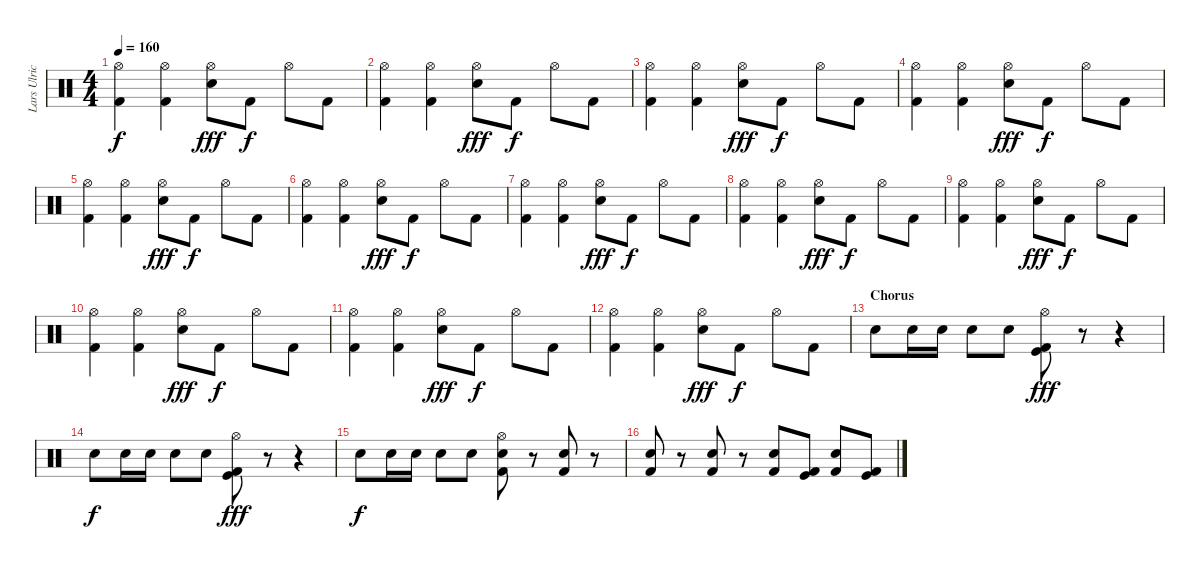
\track ("Lars Ulrich" "Lars Ulric") {instrument percussion}
\staff {score}
\articulation defaults
\ts (4 4)
\tempo 160
\clef neutral
\ks c
("Hi-Hat (open)" "Kick (hit) 2").4{dy f} ("Hi-Hat (open)" "Kick (hit) 2").4 ("Hi-Hat (open)" "Electric Snare (hit)").8{dy fff} "Kick (hit) 2".8{dy f} "Hi-Hat (open)".8 "Kick (hit) 2".8 |
("Hi-Hat (open)" "Kick (hit) 2").4 ("Hi-Hat (open)" "Kick (hit) 2").4 ("Hi-Hat (open)" "Electric Snare (hit)").8{dy fff} "Kick (hit) 2".8{dy f} "Hi-Hat (open)".8 "Kick (hit) 2".8 |
("Hi-Hat (open)" "Kick (hit) 2").4 ("Hi-Hat (open)" "Kick (hit) 2").4 ("Hi-Hat (open)" "Electric Snare (hit)").8{dy fff} "Kick (hit) 2".8{dy f} "Hi-Hat (open)".8 "Kick (hit) 2".8 |
("Hi-Hat (open)" "Kick (hit) 2").4 ("Hi-Hat (open)" "Kick (hit) 2").4 ("Hi-Hat (open)" "Electric Snare (hit)").8{dy fff} "Kick (hit) 2".8{dy f} "Hi-Hat (open)".8 "Kick (hit) 2".8 |
("Hi-Hat (open)" "Kick (hit) 2").4 ("Hi-Hat (open)" "Kick (hit) 2").4 ("Hi-Hat (open)" "Electric Snare (hit)").8{dy fff} "Kick (hit) 2".8{dy f} "Hi-Hat (open)".8 "Kick (hit) 2".8 |
("Hi-Hat (open)" "Kick (hit) 2").4 ("Hi-Hat (open)" "Kick (hit) 2").4 ("Hi-Hat (open)" "Electric Snare (hit)").8{dy fff} "Kick (hit) 2".8{dy f} "Hi-Hat (open)".8 "Kick (hit) 2".8 |
("Hi-Hat (open)" "Kick (hit) 2").4 ("Hi-Hat (open)" "Kick (hit) 2").4 ("Hi-Hat (open)" "Electric Snare (hit)").8{dy fff} "Kick (hit) 2".8{dy f} "Hi-Hat (open)".8 "Kick (hit) 2".8 |
("Hi-Hat (open)" "Kick (hit) 2").4 ("Hi-Hat (open)" "Kick (hit) 2").4 ("Hi-Hat (open)" "Electric Snare (hit)").8{dy fff} "Kick (hit) 2".8{dy f} "Hi-Hat (open)".8 "Kick (hit) 2".8 |
("Hi-Hat (open)" "Kick (hit) 2").4 ("Hi-Hat (open)" "Kick (hit) 2").4 ("Hi-Hat (open)" "Electric Snare (hit)").8{dy fff} "Kick (hit) 2".8{dy f} "Hi-Hat (open)".8 "Kick (hit) 2".8 |
("Hi-Hat (open)" "Kick (hit) 2").4 ("Hi-Hat (open)" "Kick (hit) 2").4 ("Hi-Hat (open)" "Electric Snare (hit)").8{dy fff} "Kick (hit) 2".8{dy f} "Hi-Hat (open)".8 "Kick (hit) 2".8 |
("Hi-Hat (open)" "Kick (hit) 2").4 ("Hi-Hat (open)" "Kick (hit) 2").4 ("Hi-Hat (open)" "Electric Snare (hit)").8{dy fff} "Kick (hit) 2".8{dy f} "Hi-Hat (open)".8 "Kick (hit) 2".8 |
("Hi-Hat (open)" "Kick (hit) 2").4 ("Hi-Hat (open)" "Kick (hit) 2").4 ("Hi-Hat (open)" "Electric Snare (hit)").8{dy fff} "Kick (hit) 2".8{dy f} "Hi-Hat (open)".8 "Kick (hit) 2".8 |
\section ("" "Chorus")
"Electric Snare (hit)".8 "Electric Snare (hit)".16 "Electric Snare (hit)".16 "Electric Snare (hit)".8 "Electric Snare (hit)".8 ("Hi-Hat (open)" "Kick (hit)" "Kick (hit) 2").8{dy fff} r.8 r.4 |
"Electric Snare (hit)".8{dy f} "Electric Snare (hit)".16 "Electric Snare (hit)".16 "Electric Snare (hit)".8 "Electric Snare (hit)".8 ("Hi-Hat (open)" "Kick (hit)" "Kick (hit) 2").8{dy fff} r.8 r.4 |
"Electric Snare (hit)".8{dy f} "Electric Snare (hit)".16 "Electric Snare (hit)".16 "Electric Snare (hit)".8 "Electric Snare (hit)".8 ("Hi-Hat (open)" "Electric Snare (hit)" "Kick (hit) 2").8 r.8 ("Electric Snare (hit)" "Kick (hit) 2").8 r.8 |
("Electric Snare (hit)" "Kick (hit) 2").8 r.8 ("Electric Snare (hit)" "Kick (hit) 2").8 r.8 ("Electric Snare (hit)" "Kick (hit) 2").8 ("Kick (hit) 2" "Kick (hit)").8 ("Electric Snare (hit)" "Kick (hit) 2").8 ("Kick (hit) 2" "Kick (hit)").8
